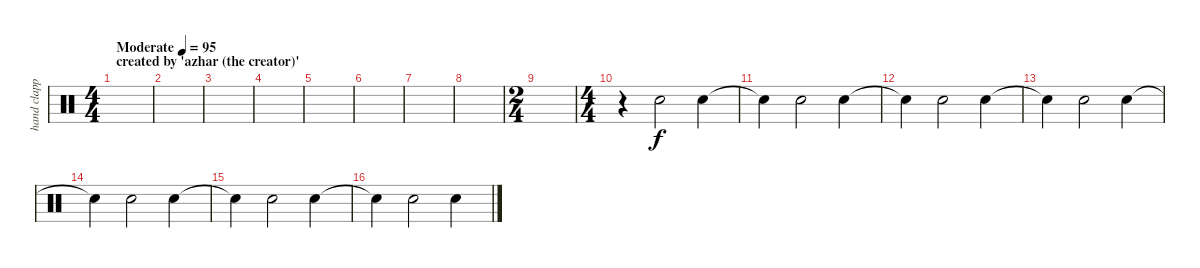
\track ("hand clapping" "hand clapp") {instrument percussion}
\staff {score}
\articulation defaults
\ts (4 4)
\section ("" "created by 'azhar (the creator)'")
\tempo (95 "Moderate")
\clef neutral
\ks c
|
|
|
|
|
|
|
|
\ts (2 4)
|
\ts (4 4)
r.4 "Hand Clap (hit)".2 "Hand Clap (hit)".4 |
"Snare (hit)"{t}.4 "Hand Clap (hit)".2 "Hand Clap (hit)".4 |
"Snare (hit)"{t}.4 "Hand Clap (hit)".2 "Hand Clap (hit)".4 |
"Snare (hit)"{t}.4 "Hand Clap (hit)".2 "Hand Clap (hit)".4 |
"Snare (hit)"{t}.4 "Hand Clap (hit)".2 "Hand Clap (hit)".4 |
"Snare (hit)"{t}.4 "Hand Clap (hit)".2 "Hand Clap (hit)".4 |
"Snare (hit)"{t}.4 "Hand Clap (hit)".2 "Hand Clap (hit)".4
